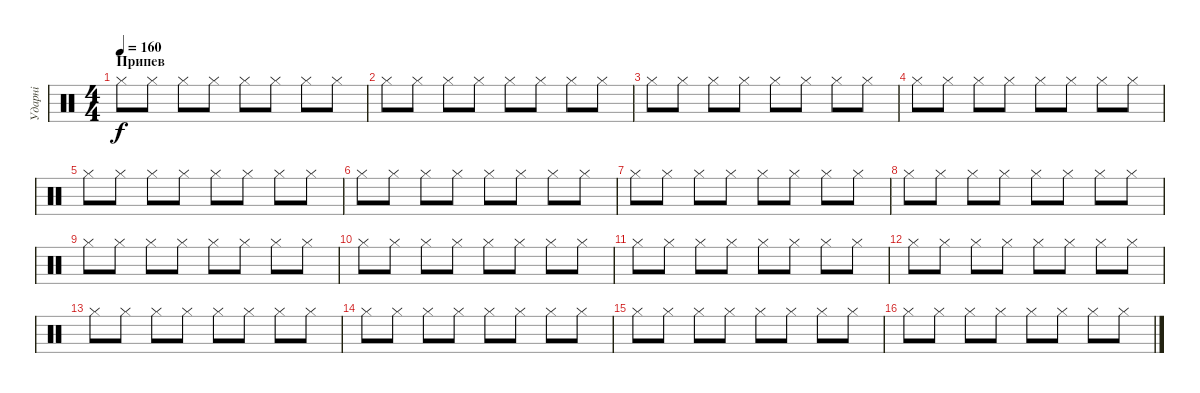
\track ("Ударні" "Ударні") {instrument percussion}
\staff {score}
\articulation defaults
\ts (4 4)
\section ("" "Припев")
\tempo 160
\clef neutral
\ks c "Hi-Hat (closed)".8{dy f} "Hi-Hat (closed)".8 "Hi-Hat (closed)".8 "Hi-Hat (closed)".8 "Hi-Hat (closed)".8 "Hi-Hat (closed)".8 "Hi-Hat (closed)".8 "Hi-Hat (closed)".8
|
"Hi-Hat (closed)".8 "Hi-Hat (closed)".8 "Hi-Hat (closed)".8 "Hi-Hat (closed)".8 "Hi-Hat (closed)".8 "Hi-Hat (closed)".8 "Hi-Hat (closed)".8 "Hi-Hat (closed)".8 |
"Hi-Hat (closed)".8 "Hi-Hat (closed)".8 "Hi-Hat (closed)".8 "Hi-Hat (closed)".8 "Hi-Hat (closed)".8 "Hi-Hat (closed)".8 "Hi-Hat (closed)".8 "Hi-Hat (closed)".8 |
"Hi-Hat (closed)".8 "Hi-Hat (closed)".8 "Hi-Hat (closed)".8 "Hi-Hat (closed)".8 "Hi-Hat (closed)".8 "Hi-Hat (closed)".8 "Hi-Hat (closed)".8 "Hi-Hat (closed)".8 |
"Hi-Hat (closed)".8 "Hi-Hat (closed)".8 "Hi-Hat (closed)".8 "Hi-Hat (closed)".8 "Hi-Hat (closed)".8 "Hi-Hat (closed)".8 "Hi-Hat (closed)".8 "Hi-Hat (closed)".8 |
"Hi-Hat (closed)".8 "Hi-Hat (closed)".8 "Hi-Hat (closed)".8 "Hi-Hat (closed)".8 "Hi-Hat (closed)".8 "Hi-Hat (closed)".8 "Hi-Hat (closed)".8 "Hi-Hat (closed)".8 |
"Hi-Hat (closed)".8 "Hi-Hat (closed)".8 "Hi-Hat (closed)".8 "Hi-Hat (closed)".8 "Hi-Hat (closed)".8 "Hi-Hat (closed)".8 "Hi-Hat (closed)".8 "Hi-Hat (closed)".8 |
"Hi-Hat (closed)".8 "Hi-Hat (closed)".8 "Hi-Hat (closed)".8 "Hi-Hat (closed)".8 "Hi-Hat (closed)".8 "Hi-Hat (closed)".8 "Hi-Hat (closed)".8 "Hi-Hat (closed)".8 |
"Hi-Hat (closed)".8 "Hi-Hat (closed)".8 "Hi-Hat (closed)".8 "Hi-Hat (closed)".8 "Hi-Hat (closed)".8 "Hi-Hat (closed)".8 "Hi-Hat (closed)".8 "Hi-Hat (closed)".8 |
"Hi-Hat (closed)".8 "Hi-Hat (closed)".8 "Hi-Hat (closed)".8 "Hi-Hat (closed)".8 "Hi-Hat (closed)".8 "Hi-Hat (closed)".8 "Hi-Hat (closed)".8 "Hi-Hat (closed)".8 |
"Hi-Hat (closed)".8 "Hi-Hat (closed)".8 "Hi-Hat (closed)".8 "Hi-Hat (closed)".8 "Hi-Hat (closed)".8 "Hi-Hat (closed)".8 "Hi-Hat (closed)".8 "Hi-Hat (closed)".8 |
"Hi-Hat (closed)".8 "Hi-Hat (closed)".8 "Hi-Hat (closed)".8 "Hi-Hat (closed)".8 "Hi-Hat (closed)".8 "Hi-Hat (closed)".8 "Hi-Hat (closed)".8 "Hi-Hat (closed)".8 |
"Hi-Hat (closed)".8 "Hi-Hat (closed)".8 "Hi-Hat (closed)".8 "Hi-Hat (closed)".8 "Hi-Hat (closed)".8 "Hi-Hat (closed)".8 "Hi-Hat (closed)".8 "Hi-Hat (closed)".8 |
"Hi-Hat (closed)".8 "Hi-Hat (closed)".8 "Hi-Hat (closed)".8 "Hi-Hat (closed)".8 "Hi-Hat (closed)".8 "Hi-Hat (closed)".8 "Hi-Hat (closed)".8 "Hi-Hat (closed)".8 |
"Hi-Hat (closed)".8 "Hi-Hat (closed)".8 "Hi-Hat (closed)".8 "Hi-Hat (closed)".8 "Hi-Hat (closed)".8 "Hi-Hat (closed)".8 "Hi-Hat (closed)".8 "Hi-Hat (closed)".8 |
"Hi-Hat (closed)".8 "Hi-Hat (closed)".8 "Hi-Hat (closed)".8 "Hi-Hat (closed)".8 "Hi-Hat (closed)".8 "Hi-Hat (closed)".8 "Hi-Hat (closed)".8 "Hi-Hat (closed)".8
